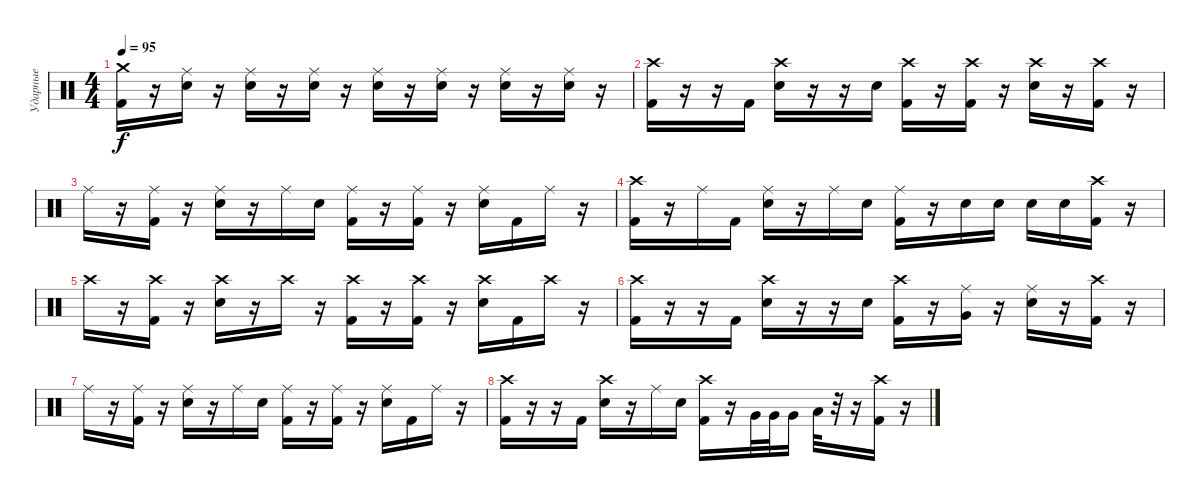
\track ("Ударные" "Ударные") {instrument percussion}
\staff {score}
\articulation defaults
\ts (4 4)
\tempo 95
\clef neutral
\ks c
("Crash medium (hit)" "Kick (hit) 2").16{dy f} r.16 ("Ride (middle)" "Electric Snare (hit)").16 r.16 ("Ride (middle)" "Electric Snare (hit)").16 r.16 ("Ride (middle)" "Electric Snare (hit)").16 r.16 ("Ride (middle)" "Electric Snare (hit)").16 r.16 ("Ride (middle)" "Electric Snare (hit)").16 r.16 ("Ride (middle)" "Electric Snare (hit)").16 r.16 ("Ride (middle)" "Electric Snare (hit)").16 r.16 |
("Crash high (hit)" "Kick (hit) 2").16 r.16 r.16 "Kick (hit) 2".16 ("Crash high (hit)" "Electric Snare (hit)").16 r.16 r.16 "Electric Snare (hit)".16 ("Crash high (hit)" "Kick (hit) 2").16 r.16 ("Crash high (hit)" "Kick (hit) 2").16 r.16 ("Crash high (hit)" "Electric Snare (hit)").16 r.16 ("Crash high (hit)" "Kick (hit) 2").16 r.16 |
"Ride (middle)".16 r.16 ("Ride (middle)" "Kick (hit) 2").16 r.16 ("Ride (middle)" "Electric Snare (hit)").16 r.16 "Ride (middle)".16 "Electric Snare (hit)".16 ("Ride (middle)" "Kick (hit) 2").16 r.16 ("Ride (middle)" "Kick (hit) 2").16 r.16 ("Ride (middle)" "Electric Snare (hit)").16 "Kick (hit) 2".16 "Ride (middle)".16 r.16 |
("Crash high (hit)" "Kick (hit) 2").16 r.16 "Ride (middle)".16 "Kick (hit) 2".16 ("Ride (middle)" "Electric Snare (hit)").16 r.16 "Ride (middle)".16 "Electric Snare (hit)".16 ("Ride (middle)" "Kick (hit) 2").16 r.16 "Electric Snare (hit)".16 "Electric Snare (hit)".16 "Electric Snare (hit)".16 "Electric Snare (hit)".16 ("Crash high (hit)" "Kick (hit) 2").16 r.16 |
"Crash high (hit)".16 r.16 ("Crash high (hit)" "Kick (hit) 2").16 r.16 ("Crash high (hit)" "Electric Snare (hit)").16 r.16 "Crash high (hit)".16 r.16 ("Crash high (hit)" "Kick (hit) 2").16 r.16 ("Crash high (hit)" "Kick (hit) 2").16 r.16 ("Crash high (hit)" "Electric Snare (hit)").16 "Kick (hit) 2".16 "Crash high (hit)".16 r.16 |
("Crash high (hit)" "Kick (hit) 2").16 r.16 r.16 "Kick (hit) 2".16 ("Crash high (hit)" "Electric Snare (hit)").16 r.16 r.16 "Electric Snare (hit)".16 ("Crash high (hit)" "Kick (hit) 2").16 r.16 ("Ride (middle)" "Very Low Tom (hit)").16 r.16 ("Ride (middle)" "Electric Snare (hit)").16 r.16 ("Crash high (hit)" "Kick (hit) 2").16 r.16 |
"Ride (middle)".16 r.16 ("Ride (middle)" "Kick (hit) 2").16 r.16 ("Ride (middle)" "Electric Snare (hit)").16 r.16 "Ride (middle)".16 "Electric Snare (hit)".16 ("Ride (middle)" "Kick (hit) 2").16 r.16 ("Ride (middle)" "Kick (hit) 2").16 r.16 ("Ride (middle)" "Electric Snare (hit)").16 "Kick (hit) 2".16 "Ride (middle)".16 r.16 |
("Crash high (hit)" "Kick (hit) 2").16 r.16 r.16 "Kick (hit) 2".16 ("Crash high (hit)" "Electric Snare (hit)").16 r.16 "Ride (middle)".16 "Electric Snare (hit)".16 ("Crash high (hit)" "Kick (hit) 2").16 r.16 "Very Low Tom (hit)".32 "Very Low Tom (hit)".32 "Very Low Tom (hit)".16 "Low Floor Tom (hit)".32 r.32 r.16 ("Crash high (hit)" "Kick (hit) 2").16 r.16
